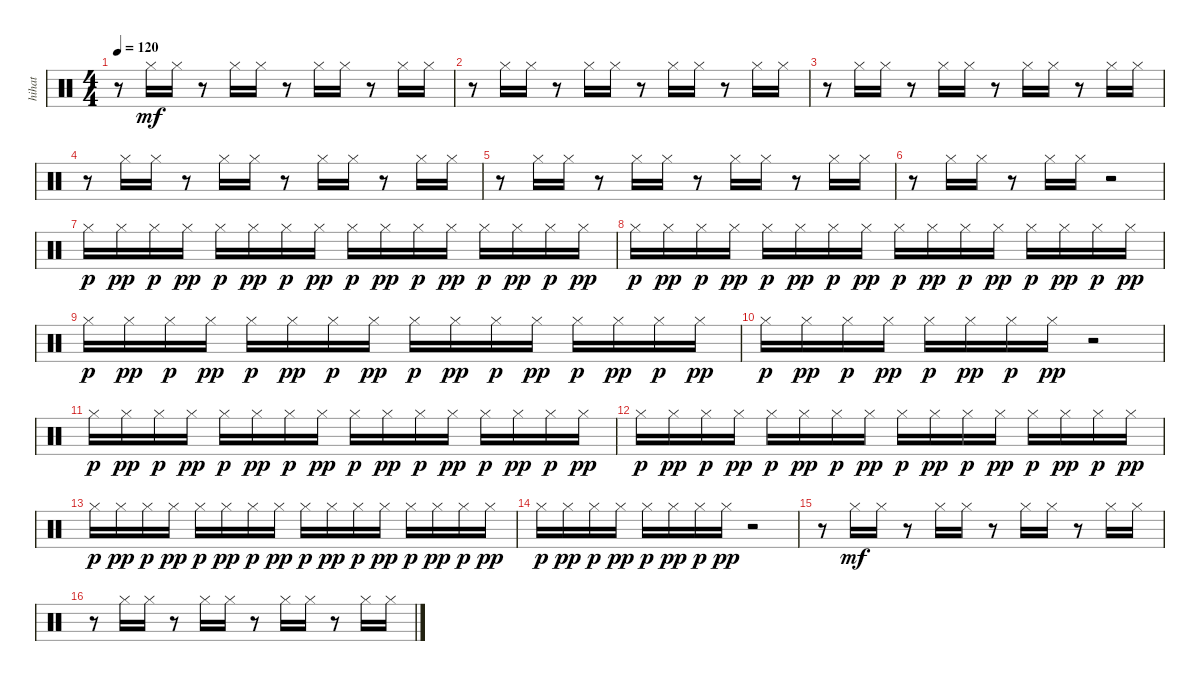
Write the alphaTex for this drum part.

\track ("hihat" "hihat") {instrument percussion}
\staff {score}
\articulation defaults
\ts (4 4)
\tempo 120
\clef neutral
\ks c
r.8{dy mf} "Hi-Hat (closed)".16 "Hi-Hat (closed)".16 r.8 "Hi-Hat (closed)".16 "Hi-Hat (closed)".16 r.8 "Hi-Hat (closed)".16 "Hi-Hat (closed)".16 r.8 "Hi-Hat (closed)".16 "Hi-Hat (closed)".16 |
r.8 "Hi-Hat (closed)".16 "Hi-Hat (closed)".16 r.8 "Hi-Hat (closed)".16 "Hi-Hat (closed)".16 r.8 "Hi-Hat (closed)".16 "Hi-Hat (closed)".16 r.8 "Hi-Hat (closed)".16 "Hi-Hat (closed)".16 |
r.8 "Hi-Hat (closed)".16 "Hi-Hat (closed)".16 r.8 "Hi-Hat (closed)".16 "Hi-Hat (closed)".16 r.8 "Hi-Hat (closed)".16 "Hi-Hat (closed)".16 r.8 "Hi-Hat (closed)".16 "Hi-Hat (closed)".16 |
r.8 "Hi-Hat (closed)".16 "Hi-Hat (closed)".16 r.8 "Hi-Hat (closed)".16 "Hi-Hat (closed)".16 r.8 "Hi-Hat (closed)".16 "Hi-Hat (closed)".16 r.8 "Hi-Hat (closed)".16 "Hi-Hat (closed)".16 |
r.8 "Hi-Hat (closed)".16 "Hi-Hat (closed)".16 r.8 "Hi-Hat (closed)".16 "Hi-Hat (closed)".16 r.8 "Hi-Hat (closed)".16 "Hi-Hat (closed)".16 r.8 "Hi-Hat (closed)".16 "Hi-Hat (closed)".16 |
r.8 "Hi-Hat (closed)".16 "Hi-Hat (closed)".16 r.8 "Hi-Hat (closed)".16 "Hi-Hat (closed)".16 r.2 |
"Hi-Hat (closed)".16{dy p} "Hi-Hat (closed)".16{dy pp} "Hi-Hat (closed)".16{dy p} "Hi-Hat (closed)".16{dy pp} "Hi-Hat (closed)".16{dy p} "Hi-Hat (closed)".16{dy pp} "Hi-Hat (closed)".16{dy p} "Hi-Hat (closed)".16{dy pp} "Hi-Hat (closed)".16{dy p} "Hi-Hat (closed)".16{dy pp} "Hi-Hat (closed)".16{dy p} "Hi-Hat (closed)".16{dy pp} "Hi-Hat (closed)".16{dy p} "Hi-Hat (closed)".16{dy pp} "Hi-Hat (closed)".16{dy p} "Hi-Hat (closed)".16{dy pp} |
"Hi-Hat (closed)".16{dy p} "Hi-Hat (closed)".16{dy pp} "Hi-Hat (closed)".16{dy p} "Hi-Hat (closed)".16{dy pp} "Hi-Hat (closed)".16{dy p} "Hi-Hat (closed)".16{dy pp} "Hi-Hat (closed)".16{dy p} "Hi-Hat (closed)".16{dy pp} "Hi-Hat (closed)".16{dy p} "Hi-Hat (closed)".16{dy pp} "Hi-Hat (closed)".16{dy p} "Hi-Hat (closed)".16{dy pp} "Hi-Hat (closed)".16{dy p} "Hi-Hat (closed)".16{dy pp} "Hi-Hat (closed)".16{dy p} "Hi-Hat (closed)".16{dy pp} |
"Hi-Hat (closed)".16{dy p} "Hi-Hat (closed)".16{dy pp} "Hi-Hat (closed)".16{dy p} "Hi-Hat (closed)".16{dy pp} "Hi-Hat (closed)".16{dy p} "Hi-Hat (closed)".16{dy pp} "Hi-Hat (closed)".16{dy p} "Hi-Hat (closed)".16{dy pp} "Hi-Hat (closed)".16{dy p} "Hi-Hat (closed)".16{dy pp} "Hi-Hat (closed)".16{dy p} "Hi-Hat (closed)".16{dy pp} "Hi-Hat (closed)".16{dy p} "Hi-Hat (closed)".16{dy pp} "Hi-Hat (closed)".16{dy p} "Hi-Hat (closed)".16{dy pp} |
"Hi-Hat (closed)".16{dy p} "Hi-Hat (closed)".16{dy pp} "Hi-Hat (closed)".16{dy p} "Hi-Hat (closed)".16{dy pp} "Hi-Hat (closed)".16{dy p} "Hi-Hat (closed)".16{dy pp} "Hi-Hat (closed)".16{dy p} "Hi-Hat (closed)".16{dy pp} r.2 |
"Hi-Hat (closed)".16{dy p} "Hi-Hat (closed)".16{dy pp} "Hi-Hat (closed)".16{dy p} "Hi-Hat (closed)".16{dy pp} "Hi-Hat (closed)".16{dy p} "Hi-Hat (closed)".16{dy pp} "Hi-Hat (closed)".16{dy p} "Hi-Hat (closed)".16{dy pp} "Hi-Hat (closed)".16{dy p} "Hi-Hat (closed)".16{dy pp} "Hi-Hat (closed)".16{dy p} "Hi-Hat (closed)".16{dy pp} "Hi-Hat (closed)".16{dy p} "Hi-Hat (closed)".16{dy pp} "Hi-Hat (closed)".16{dy p} "Hi-Hat (closed)".16{dy pp} |
"Hi-Hat (closed)".16{dy p} "Hi-Hat (closed)".16{dy pp} "Hi-Hat (closed)".16{dy p} "Hi-Hat (closed)".16{dy pp} "Hi-Hat (closed)".16{dy p} "Hi-Hat (closed)".16{dy pp} "Hi-Hat (closed)".16{dy p} "Hi-Hat (closed)".16{dy pp} "Hi-Hat (closed)".16{dy p} "Hi-Hat (closed)".16{dy pp} "Hi-Hat (closed)".16{dy p} "Hi-Hat (closed)".16{dy pp} "Hi-Hat (closed)".16{dy p} "Hi-Hat (closed)".16{dy pp} "Hi-Hat (closed)".16{dy p} "Hi-Hat (closed)".16{dy pp} |
"Hi-Hat (closed)".16{dy p} "Hi-Hat (closed)".16{dy pp} "Hi-Hat (closed)".16{dy p} "Hi-Hat (closed)".16{dy pp} "Hi-Hat (closed)".16{dy p} "Hi-Hat (closed)".16{dy pp} "Hi-Hat (closed)".16{dy p} "Hi-Hat (closed)".16{dy pp} "Hi-Hat (closed)".16{dy p} "Hi-Hat (closed)".16{dy pp} "Hi-Hat (closed)".16{dy p} "Hi-Hat (closed)".16{dy pp} "Hi-Hat (closed)".16{dy p} "Hi-Hat (closed)".16{dy pp} "Hi-Hat (closed)".16{dy p} "Hi-Hat (closed)".16{dy pp} |
"Hi-Hat (closed)".16{dy p} "Hi-Hat (closed)".16{dy pp} "Hi-Hat (closed)".16{dy p} "Hi-Hat (closed)".16{dy pp} "Hi-Hat (closed)".16{dy p} "Hi-Hat (closed)".16{dy pp} "Hi-Hat (closed)".16{dy p} "Hi-Hat (closed)".16{dy pp} r.2 |
r.8 "Hi-Hat (closed)".16{dy mf} "Hi-Hat (closed)".16 r.8 "Hi-Hat (closed)".16 "Hi-Hat (closed)".16 r.8 "Hi-Hat (closed)".16 "Hi-Hat (closed)".16 r.8 "Hi-Hat (closed)".16 "Hi-Hat (closed)".16 |
r.8 "Hi-Hat (closed)".16 "Hi-Hat (closed)".16 r.8 "Hi-Hat (closed)".16 "Hi-Hat (closed)".16 r.8 "Hi-Hat (closed)".16 "Hi-Hat (closed)".16 r.8 "Hi-Hat (closed)".16 "Hi-Hat (closed)".16
